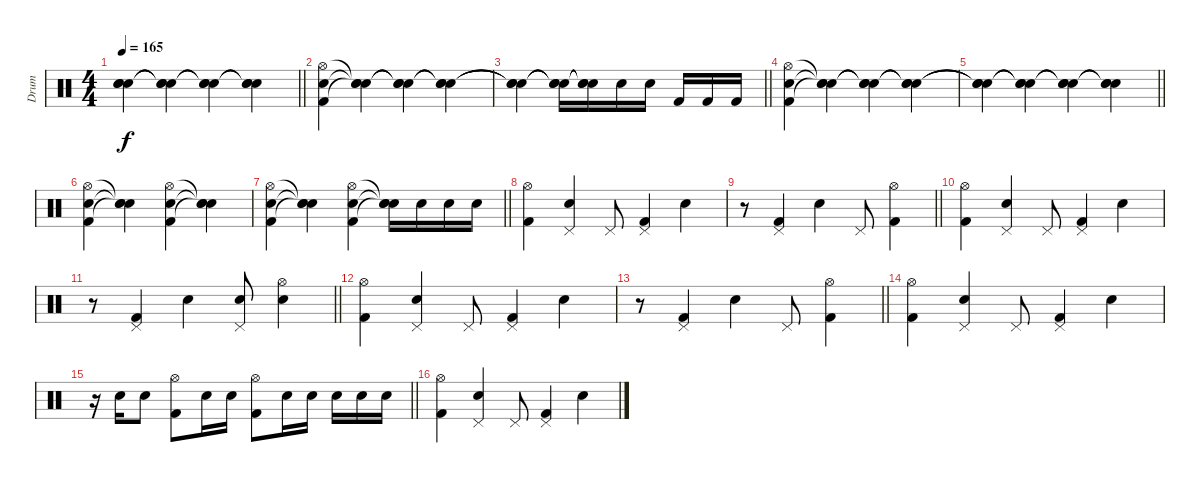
\track ("Drum" "Drum") {instrument percussion}
\staff {score}
\articulation defaults
\ts (4 4)
\tempo 165
\clef neutral
\barLineRight lightlight
\ks c
("Snare (hit)"{t} "Snare (hit)"{t} "Snare (hit)"{t}).4{dy f} ("Snare (hit)"{t} "Snare (hit)"{t} "Snare (hit)"{t}).4 ("Snare (hit)"{t} "Snare (hit)"{t} "Snare (hit)"{t}).4 ("Snare (hit)"{t} "Snare (hit)"{t} "Snare (hit)"{t}).4 |
("Kick (hit) 2" "Electric Snare (hit)" "Hi-Hat (open)").4 ("Snare (hit)"{t} "Snare (hit)"{t} "Snare (hit)"{t}).4 ("Snare (hit)"{t} "Snare (hit)"{t} "Snare (hit)"{t}).4 ("Snare (hit)"{t} "Snare (hit)"{t} "Snare (hit)"{t}).4 |
\barLineRight lightlight
("Snare (hit)"{t} "Snare (hit)"{t} "Snare (hit)"{t}).4 ("Electric Snare (hit)"{t} "Snare (hit)"{t} "Snare (hit)"{t}).16 ("Electric Snare (hit)"{t} "Snare (hit)"{t} "Snare (hit)"{t}).16 "Electric Snare (hit)".16 "Snare (hit) 2".16 "Kick (hit) 2".16 "Kick (hit) 2".16 "Kick (hit) 2".16 |
("Kick (hit) 2" "Electric Snare (hit)" "Hi-Hat (open)").4 ("Snare (hit)"{t} "Snare (hit)"{t} "Snare (hit)"{t}).4 ("Snare (hit)"{t} "Snare (hit)"{t} "Snare (hit)"{t}).4 ("Snare (hit)"{t} "Snare (hit)"{t} "Snare (hit)"{t}).4 |
\barLineRight lightlight
("Snare (hit)"{t} "Snare (hit)"{t} "Snare (hit)"{t}).4 ("Snare (hit)"{t} "Snare (hit)"{t} "Snare (hit)"{t}).4 ("Snare (hit)"{t} "Snare (hit)"{t} "Snare (hit)"{t}).4 ("Snare (hit)"{t} "Snare (hit)"{t} "Snare (hit)"{t}).4 |
("Kick (hit) 2" "Electric Snare (hit)" "Hi-Hat (open)").4 ("Snare (hit)"{t} "Snare (hit)"{t} "Snare (hit)"{t}).4 ("Kick (hit) 2" "Electric Snare (hit)" "Hi-Hat (open)").4 ("Snare (hit)"{t} "Snare (hit)"{t} "Snare (hit)"{t}).4 |
\barLineRight lightlight
("Kick (hit) 2" "Electric Snare (hit)" "Hi-Hat (open)").4 ("Snare (hit)"{t} "Snare (hit)"{t} "Snare (hit)"{t}).4 ("Kick (hit) 2" "Electric Snare (hit)" "Hi-Hat (open)").4 ("Snare (hit)"{t} "Snare (hit)"{t} "Snare (hit)"{t}).16 "Electric Snare (hit)".16 "Electric Snare (hit)".16 "Electric Snare (hit)".16 |
("Kick (hit) 2" "Hi-Hat (open)").4 ("Electric Snare (hit)" "Pedal Hi-Hat (hit)").4 "Pedal Hi-Hat (hit)".8 ("Kick (hit) 2" "Pedal Hi-Hat (hit)").4 "Electric Snare (hit)".4 |
\barLineRight lightlight
r.8 ("Kick (hit) 2" "Pedal Hi-Hat (hit)").4 "Electric Snare (hit)".4 "Pedal Hi-Hat (hit)".8 ("Kick (hit) 2" "Hi-Hat (open)").4 |
("Kick (hit) 2" "Hi-Hat (open)").4 ("Electric Snare (hit)" "Pedal Hi-Hat (hit)").4 "Pedal Hi-Hat (hit)".8 ("Kick (hit) 2" "Pedal Hi-Hat (hit)").4 "Electric Snare (hit)".4 |
\barLineRight lightlight
r.8 ("Kick (hit) 2" "Pedal Hi-Hat (hit)").4 "Electric Snare (hit)".4 ("Electric Snare (hit)" "Pedal Hi-Hat (hit)").8 ("Electric Snare (hit)" "Hi-Hat (open)").4 |
("Kick (hit) 2" "Hi-Hat (open)").4 ("Electric Snare (hit)" "Pedal Hi-Hat (hit)").4 "Pedal Hi-Hat (hit)".8 ("Kick (hit) 2" "Pedal Hi-Hat (hit)").4 "Electric Snare (hit)".4 |
\barLineRight lightlight
r.8 ("Kick (hit) 2" "Pedal Hi-Hat (hit)").4 "Electric Snare (hit)".4 "Pedal Hi-Hat (hit)".8 ("Kick (hit) 2" "Hi-Hat (open)").4 |
("Kick (hit) 2" "Hi-Hat (open)").4 ("Electric Snare (hit)" "Pedal Hi-Hat (hit)").4 "Pedal Hi-Hat (hit)".8 ("Kick (hit) 2" "Pedal Hi-Hat (hit)").4 "Electric Snare (hit)".4 |
\barLineRight lightlight
r.16 "Electric Snare (hit)".16 "Electric Snare (hit)".8 ("Kick (hit) 2" "Hi-Hat (open)").8 "Electric Snare (hit)".16 "Electric Snare (hit)".16 ("Kick (hit) 2" "Hi-Hat (open)").8 "Electric Snare (hit)".16 "Electric Snare (hit)".16 "Electric Snare (hit)".16 "Electric Snare (hit)".16 "Electric Snare (hit)".16 |
("Kick (hit) 2" "Hi-Hat (open)").4 ("Electric Snare (hit)" "Pedal Hi-Hat (hit)").4 "Pedal Hi-Hat (hit)".8 ("Kick (hit) 2" "Pedal Hi-Hat (hit)").4 "Electric Snare (hit)".4
